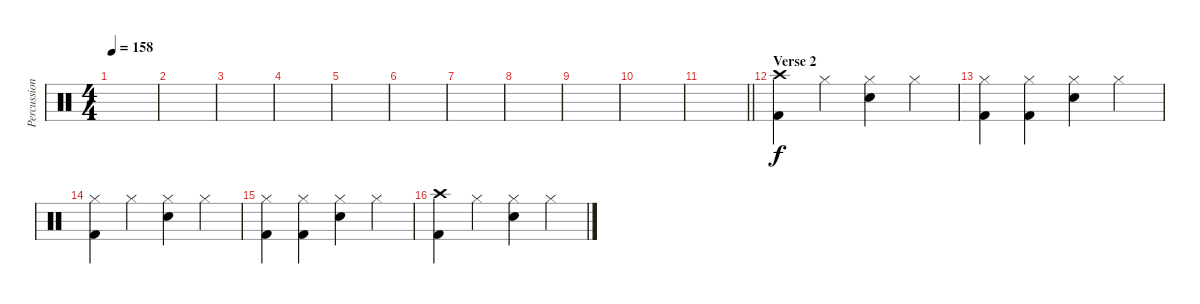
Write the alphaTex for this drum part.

\track ("Percussion" "Percussion") {instrument percussion}
\staff {score}
\articulation defaults
\ts (4 4)
\tempo 158
\clef neutral
\ks c
|
|
|
|
|
|
|
|
|
|
\barLineRight lightlight
|
\section ("" "Verse 2")
("Crash high (hit)" "Kick (hit) 2").4 "Hi-Hat (closed)".4 ("Hi-Hat (closed)" "Snare (hit) 2").4 "Hi-Hat (closed)".4 |
("Hi-Hat (closed)" "Kick (hit) 2").4 ("Hi-Hat (closed)" "Kick (hit) 2").4 ("Hi-Hat (closed)" "Snare (hit) 2").4 "Hi-Hat (closed)".4 |
("Hi-Hat (closed)" "Kick (hit) 2").4 "Hi-Hat (closed)".4 ("Hi-Hat (closed)" "Snare (hit) 2").4 "Hi-Hat (closed)".4 |
("Hi-Hat (closed)" "Kick (hit) 2").4 ("Hi-Hat (closed)" "Kick (hit) 2").4 ("Hi-Hat (closed)" "Snare (hit) 2").4 "Hi-Hat (closed)".4 |
("Crash high (hit)" "Kick (hit) 2").4 "Hi-Hat (closed)".4 ("Hi-Hat (closed)" "Snare (hit) 2").4 "Hi-Hat (closed)".4
